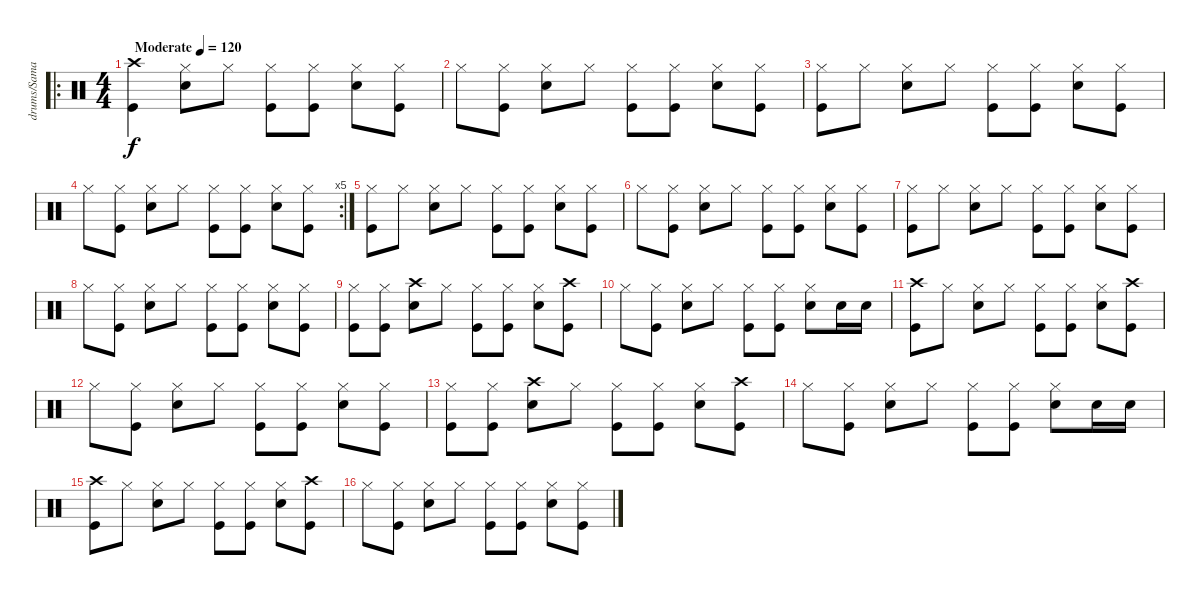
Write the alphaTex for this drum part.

\track ("drums/Samantha" "drums/Sama") {instrument percussion}
\staff {score}
\articulation defaults
\ro
\ts (4 4)
\tempo (120 "Moderate")
\clef neutral
\ks c
("Crash high (hit)" "Kick (hit)").4{dy f} ("Hi-Hat (closed)" "Snare (hit) 2").8 "Hi-Hat (closed)".8 ("Hi-Hat (closed)" "Kick (hit)").8 ("Hi-Hat (closed)" "Kick (hit)").8 ("Hi-Hat (closed)" "Snare (hit) 2").8 ("Hi-Hat (closed)" "Kick (hit)").8 |
"Hi-Hat (closed)".8 ("Hi-Hat (closed)" "Kick (hit)").8 ("Hi-Hat (closed)" "Snare (hit) 2").8 "Hi-Hat (closed)".8 ("Hi-Hat (closed)" "Kick (hit)").8 ("Hi-Hat (closed)" "Kick (hit)").8 ("Hi-Hat (closed)" "Snare (hit) 2").8 ("Hi-Hat (closed)" "Kick (hit)").8 |
("Hi-Hat (closed)" "Kick (hit)").8 "Hi-Hat (closed)".8 ("Hi-Hat (closed)" "Snare (hit) 2").8 "Hi-Hat (closed)".8 ("Hi-Hat (closed)" "Kick (hit)").8 ("Hi-Hat (closed)" "Kick (hit)").8 ("Hi-Hat (closed)" "Snare (hit) 2").8 ("Hi-Hat (closed)" "Kick (hit)").8 |
\rc 5 "Hi-Hat (closed)".8
("Hi-Hat (closed)" "Kick (hit)").8 ("Hi-Hat (closed)" "Snare (hit) 2").8 "Hi-Hat (closed)".8 ("Hi-Hat (closed)" "Kick (hit)").8 ("Hi-Hat (closed)" "Kick (hit)").8 ("Hi-Hat (closed)" "Snare (hit) 2").8 ("Hi-Hat (closed)" "Kick (hit)").8 |
("Hi-Hat (closed)" "Kick (hit)").8 "Hi-Hat (closed)".8 ("Hi-Hat (closed)" "Snare (hit) 2").8 "Hi-Hat (closed)".8 ("Hi-Hat (closed)" "Kick (hit)").8 ("Hi-Hat (closed)" "Kick (hit)").8 ("Hi-Hat (closed)" "Snare (hit) 2").8 ("Hi-Hat (closed)" "Kick (hit)").8 |
"Hi-Hat (closed)".8 ("Hi-Hat (closed)" "Kick (hit)").8 ("Hi-Hat (closed)" "Snare (hit) 2").8 "Hi-Hat (closed)".8 ("Hi-Hat (closed)" "Kick (hit)").8 ("Hi-Hat (closed)" "Kick (hit)").8 ("Hi-Hat (closed)" "Snare (hit) 2").8 ("Hi-Hat (closed)" "Kick (hit)").8 |
("Hi-Hat (closed)" "Kick (hit)").8 "Hi-Hat (closed)".8 ("Hi-Hat (closed)" "Snare (hit) 2").8 "Hi-Hat (closed)".8 ("Hi-Hat (closed)" "Kick (hit)").8 ("Hi-Hat (closed)" "Kick (hit)").8 ("Hi-Hat (closed)" "Snare (hit) 2").8 ("Hi-Hat (closed)" "Kick (hit)").8 |
"Hi-Hat (closed)".8 ("Hi-Hat (closed)" "Kick (hit)").8 ("Hi-Hat (closed)" "Snare (hit) 2").8 "Hi-Hat (closed)".8 ("Hi-Hat (closed)" "Kick (hit)").8 ("Hi-Hat (closed)" "Kick (hit)").8 ("Hi-Hat (closed)" "Snare (hit) 2").8 ("Hi-Hat (closed)" "Kick (hit)").8 |
("Hi-Hat (closed)" "Kick (hit)").8 ("Hi-Hat (closed)" "Kick (hit)").8 ("Crash high (hit)" "Snare (hit) 2").8 "Hi-Hat (closed)".8 ("Hi-Hat (closed)" "Kick (hit)").8 ("Hi-Hat (closed)" "Kick (hit)").8 ("Hi-Hat (closed)" "Snare (hit) 2").8 ("Crash high (hit)" "Kick (hit)").8 |
"Hi-Hat (closed)".8 ("Hi-Hat (closed)" "Kick (hit)").8 ("Hi-Hat (closed)" "Snare (hit) 2").8 "Hi-Hat (closed)".8 ("Hi-Hat (closed)" "Kick (hit)").8 ("Hi-Hat (closed)" "Kick (hit)").8 ("Hi-Hat (closed)" "Snare (hit) 2").8 "Snare (hit) 2".16 "Snare (hit) 2".16 |
("Crash high (hit)" "Kick (hit)").8 "Hi-Hat (closed)".8 ("Hi-Hat (closed)" "Snare (hit) 2").8 "Hi-Hat (closed)".8 ("Hi-Hat (closed)" "Kick (hit)").8 ("Hi-Hat (closed)" "Kick (hit)").8 ("Hi-Hat (closed)" "Snare (hit) 2").8 ("Crash high (hit)" "Kick (hit)").8 |
"Hi-Hat (closed)".8 ("Hi-Hat (closed)" "Kick (hit)").8 ("Hi-Hat (closed)" "Snare (hit) 2").8 "Hi-Hat (closed)".8 ("Hi-Hat (closed)" "Kick (hit)").8 ("Hi-Hat (closed)" "Kick (hit)").8 ("Hi-Hat (closed)" "Snare (hit) 2").8 ("Hi-Hat (closed)" "Kick (hit)").8 |
("Hi-Hat (closed)" "Kick (hit)").8 ("Hi-Hat (closed)" "Kick (hit)").8 ("Crash high (hit)" "Snare (hit) 2").8 "Hi-Hat (closed)".8 ("Hi-Hat (closed)" "Kick (hit)").8 ("Hi-Hat (closed)" "Kick (hit)").8 ("Hi-Hat (closed)" "Snare (hit) 2").8 ("Crash high (hit)" "Kick (hit)").8 |
"Hi-Hat (closed)".8 ("Hi-Hat (closed)" "Kick (hit)").8 ("Hi-Hat (closed)" "Snare (hit) 2").8 "Hi-Hat (closed)".8 ("Hi-Hat (closed)" "Kick (hit)").8 ("Hi-Hat (closed)" "Kick (hit)").8 ("Hi-Hat (closed)" "Snare (hit) 2").8 "Snare (hit) 2".16 "Snare (hit) 2".16 |
("Crash high (hit)" "Kick (hit)").8 "Hi-Hat (closed)".8 ("Hi-Hat (closed)" "Snare (hit) 2").8 "Hi-Hat (closed)".8 ("Hi-Hat (closed)" "Kick (hit)").8 ("Hi-Hat (closed)" "Kick (hit)").8 ("Hi-Hat (closed)" "Snare (hit) 2").8 ("Crash high (hit)" "Kick (hit)").8 |
"Hi-Hat (closed)".8 ("Hi-Hat (closed)" "Kick (hit)").8 ("Hi-Hat (closed)" "Snare (hit) 2").8 "Hi-Hat (closed)".8 ("Hi-Hat (closed)" "Kick (hit)").8 ("Hi-Hat (closed)" "Kick (hit)").8 ("Hi-Hat (closed)" "Snare (hit) 2").8 ("Hi-Hat (closed)" "Kick (hit)").8
